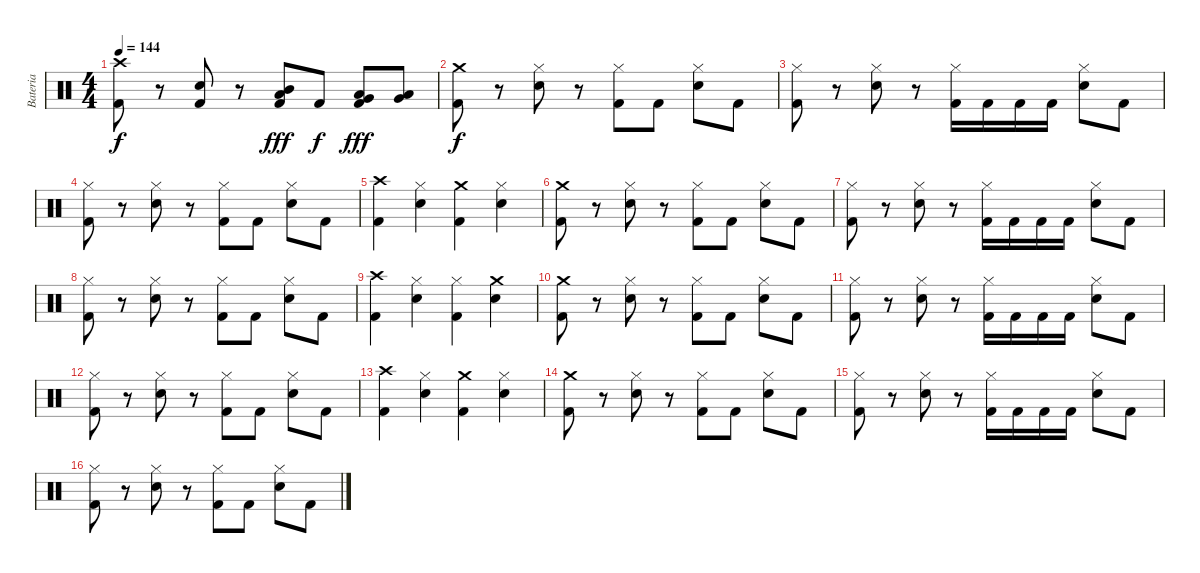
\track ("Bateria" "Bateria") {instrument percussion}
\staff {score}
\articulation defaults
\ts (4 4)
\tempo 144
\clef neutral
\ks c
("Crash high (hit)" "Kick (hit) 2").8{dy f} r.8 ("Electric Snare (hit)" "Kick (hit) 2").8 r.8 ("Low Tom (hit)" "Mid Tom (hit)" "Kick (hit) 2").8{dy fff} "Kick (hit) 2".8{dy f} ("Very Low Tom (hit)" "Low Tom (hit)" "Kick (hit) 2").8{dy fff} ("Low Floor Tom (hit)" "Very Low Tom (hit)").8 |
("Crash medium (hit)" "Kick (hit) 2").8{dy f} r.8 ("Hi-Hat (closed)" "Electric Snare (hit)").8 r.8 ("Hi-Hat (closed)" "Kick (hit) 2").8 "Kick (hit) 2".8 ("Hi-Hat (closed)" "Electric Snare (hit)").8 "Kick (hit) 2".8 |
("Hi-Hat (closed)" "Kick (hit) 2").8 r.8 ("Hi-Hat (closed)" "Electric Snare (hit)").8 r.8 ("Hi-Hat (closed)" "Kick (hit) 2").16 "Kick (hit) 2".16 "Kick (hit) 2".16 "Kick (hit) 2".16 ("Hi-Hat (closed)" "Electric Snare (hit)").8 "Kick (hit) 2".8 |
("Hi-Hat (closed)" "Kick (hit) 2").8 r.8 ("Hi-Hat (closed)" "Electric Snare (hit)").8 r.8 ("Hi-Hat (closed)" "Kick (hit) 2").8 "Kick (hit) 2".8 ("Hi-Hat (closed)" "Electric Snare (hit)").8 "Kick (hit) 2".8 |
("Crash high (hit)" "Kick (hit) 2").4 ("Hi-Hat (closed)" "Electric Snare (hit)").4 ("Crash medium (hit)" "Kick (hit) 2").4 ("Hi-Hat (closed)" "Electric Snare (hit)").4 |
("Crash medium (hit)" "Kick (hit) 2").8 r.8 ("Hi-Hat (closed)" "Electric Snare (hit)").8 r.8 ("Hi-Hat (closed)" "Kick (hit) 2").8 "Kick (hit) 2".8 ("Hi-Hat (closed)" "Electric Snare (hit)").8 "Kick (hit) 2".8 |
("Hi-Hat (closed)" "Kick (hit) 2").8 r.8 ("Hi-Hat (closed)" "Electric Snare (hit)").8 r.8 ("Hi-Hat (closed)" "Kick (hit) 2").16 "Kick (hit) 2".16 "Kick (hit) 2".16 "Kick (hit) 2".16 ("Hi-Hat (closed)" "Electric Snare (hit)").8 "Kick (hit) 2".8 |
("Hi-Hat (closed)" "Kick (hit) 2").8 r.8 ("Hi-Hat (closed)" "Electric Snare (hit)").8 r.8 ("Hi-Hat (closed)" "Kick (hit) 2").8 "Kick (hit) 2".8 ("Hi-Hat (closed)" "Electric Snare (hit)").8 "Kick (hit) 2".8 |
("Crash high (hit)" "Kick (hit) 2").4 ("Hi-Hat (closed)" "Electric Snare (hit)").4 ("Hi-Hat (closed)" "Kick (hit) 2").4 ("Crash medium (hit)" "Electric Snare (hit)").4 |
("Crash medium (hit)" "Kick (hit) 2").8 r.8 ("Hi-Hat (closed)" "Electric Snare (hit)").8 r.8 ("Hi-Hat (closed)" "Kick (hit) 2").8 "Kick (hit) 2".8 ("Hi-Hat (closed)" "Electric Snare (hit)").8 "Kick (hit) 2".8 |
("Hi-Hat (closed)" "Kick (hit) 2").8 r.8 ("Hi-Hat (closed)" "Electric Snare (hit)").8 r.8 ("Hi-Hat (closed)" "Kick (hit) 2").16 "Kick (hit) 2".16 "Kick (hit) 2".16 "Kick (hit) 2".16 ("Hi-Hat (closed)" "Electric Snare (hit)").8 "Kick (hit) 2".8 |
("Hi-Hat (closed)" "Kick (hit) 2").8 r.8 ("Hi-Hat (closed)" "Electric Snare (hit)").8 r.8 ("Hi-Hat (closed)" "Kick (hit) 2").8 "Kick (hit) 2".8 ("Hi-Hat (closed)" "Electric Snare (hit)").8 "Kick (hit) 2".8 |
("Crash high (hit)" "Kick (hit) 2").4 ("Hi-Hat (closed)" "Electric Snare (hit)").4 ("Crash medium (hit)" "Kick (hit) 2").4 ("Hi-Hat (closed)" "Electric Snare (hit)").4 |
("Crash medium (hit)" "Kick (hit) 2").8 r.8 ("Hi-Hat (closed)" "Electric Snare (hit)").8 r.8 ("Hi-Hat (closed)" "Kick (hit) 2").8 "Kick (hit) 2".8 ("Hi-Hat (closed)" "Electric Snare (hit)").8 "Kick (hit) 2".8 |
("Hi-Hat (closed)" "Kick (hit) 2").8 r.8 ("Hi-Hat (closed)" "Electric Snare (hit)").8 r.8 ("Hi-Hat (closed)" "Kick (hit) 2").16 "Kick (hit) 2".16 "Kick (hit) 2".16 "Kick (hit) 2".16 ("Hi-Hat (closed)" "Electric Snare (hit)").8 "Kick (hit) 2".8 |
("Hi-Hat (closed)" "Kick (hit) 2").8 r.8 ("Hi-Hat (closed)" "Electric Snare (hit)").8 r.8 ("Hi-Hat (closed)" "Kick (hit) 2").8 "Kick (hit) 2".8 ("Hi-Hat (closed)" "Electric Snare (hit)").8 "Kick (hit) 2".8
